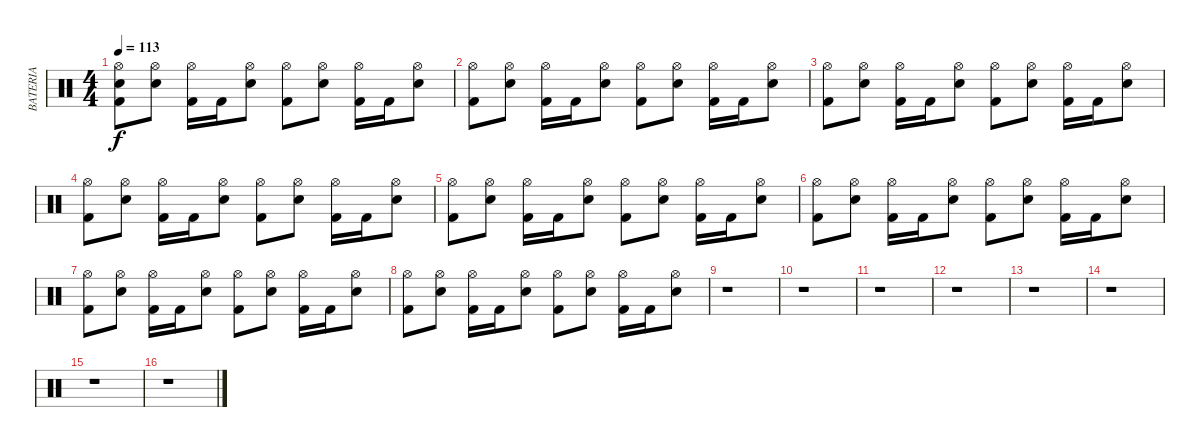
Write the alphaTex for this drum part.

\track ("BATERIA" "BATERIA") {instrument percussion}
\staff {score}
\articulation defaults
\ts (4 4)
\tempo 113
\clef neutral
\ks c
("Hi-Hat (open)" "Kick (hit) 2" "Electric Snare (hit)").8{dy f} ("Hi-Hat (open)" "Electric Snare (hit)").8 ("Hi-Hat (open)" "Kick (hit) 2").16 "Kick (hit) 2".16 ("Hi-Hat (open)" "Electric Snare (hit)").8 ("Hi-Hat (open)" "Kick (hit) 2").8 ("Hi-Hat (open)" "Electric Snare (hit)").8 ("Hi-Hat (open)" "Kick (hit) 2").16 "Kick (hit) 2".16 ("Hi-Hat (open)" "Electric Snare (hit)").8 |
("Hi-Hat (open)" "Kick (hit) 2").8 ("Hi-Hat (open)" "Electric Snare (hit)").8 ("Hi-Hat (open)" "Kick (hit) 2").16 "Kick (hit) 2".16 ("Hi-Hat (open)" "Electric Snare (hit)").8 ("Hi-Hat (open)" "Kick (hit) 2").8 ("Hi-Hat (open)" "Electric Snare (hit)").8 ("Hi-Hat (open)" "Kick (hit) 2").16 "Kick (hit) 2".16 ("Hi-Hat (open)" "Electric Snare (hit)").8 |
("Hi-Hat (open)" "Kick (hit) 2").8 ("Hi-Hat (open)" "Electric Snare (hit)").8 ("Hi-Hat (open)" "Kick (hit) 2").16 "Kick (hit) 2".16 ("Hi-Hat (open)" "Electric Snare (hit)").8 ("Hi-Hat (open)" "Kick (hit) 2").8 ("Hi-Hat (open)" "Electric Snare (hit)").8 ("Hi-Hat (open)" "Kick (hit) 2").16 "Kick (hit) 2".16 ("Hi-Hat (open)" "Electric Snare (hit)").8 |
("Hi-Hat (open)" "Kick (hit) 2").8 ("Hi-Hat (open)" "Electric Snare (hit)").8 ("Hi-Hat (open)" "Kick (hit) 2").16 "Kick (hit) 2".16 ("Hi-Hat (open)" "Electric Snare (hit)").8 ("Hi-Hat (open)" "Kick (hit) 2").8 ("Hi-Hat (open)" "Electric Snare (hit)").8 ("Hi-Hat (open)" "Kick (hit) 2").16 "Kick (hit) 2".16 ("Hi-Hat (open)" "Electric Snare (hit)").8 |
("Hi-Hat (open)" "Kick (hit) 2").8 ("Hi-Hat (open)" "Electric Snare (hit)").8 ("Hi-Hat (open)" "Kick (hit) 2").16 "Kick (hit) 2".16 ("Hi-Hat (open)" "Electric Snare (hit)").8 ("Hi-Hat (open)" "Kick (hit) 2").8 ("Hi-Hat (open)" "Electric Snare (hit)").8 ("Hi-Hat (open)" "Kick (hit) 2").16 "Kick (hit) 2".16 ("Hi-Hat (open)" "Electric Snare (hit)").8 |
("Hi-Hat (open)" "Kick (hit) 2").8 ("Hi-Hat (open)" "Electric Snare (hit)").8 ("Hi-Hat (open)" "Kick (hit) 2").16 "Kick (hit) 2".16 ("Hi-Hat (open)" "Electric Snare (hit)").8 ("Hi-Hat (open)" "Kick (hit) 2").8 ("Hi-Hat (open)" "Electric Snare (hit)").8 ("Hi-Hat (open)" "Kick (hit) 2").16 "Kick (hit) 2".16 ("Hi-Hat (open)" "Electric Snare (hit)").8 |
("Hi-Hat (open)" "Kick (hit) 2").8 ("Hi-Hat (open)" "Electric Snare (hit)").8 ("Hi-Hat (open)" "Kick (hit) 2").16 "Kick (hit) 2".16 ("Hi-Hat (open)" "Electric Snare (hit)").8 ("Hi-Hat (open)" "Kick (hit) 2").8 ("Hi-Hat (open)" "Electric Snare (hit)").8 ("Hi-Hat (open)" "Kick (hit) 2").16 "Kick (hit) 2".16 ("Hi-Hat (open)" "Electric Snare (hit)").8 |
("Hi-Hat (open)" "Kick (hit) 2").8 ("Hi-Hat (open)" "Electric Snare (hit)").8 ("Hi-Hat (open)" "Kick (hit) 2").16 "Kick (hit) 2".16 ("Hi-Hat (open)" "Electric Snare (hit)").8 ("Hi-Hat (open)" "Kick (hit) 2").8 ("Hi-Hat (open)" "Electric Snare (hit)").8 ("Hi-Hat (open)" "Kick (hit) 2").16 "Kick (hit) 2".16 ("Hi-Hat (open)" "Electric Snare (hit)").8 |
r.1 |
r.1 |
r.1 |
r.1 |
r.1 |
r.1 |
r.1 |
r.1
